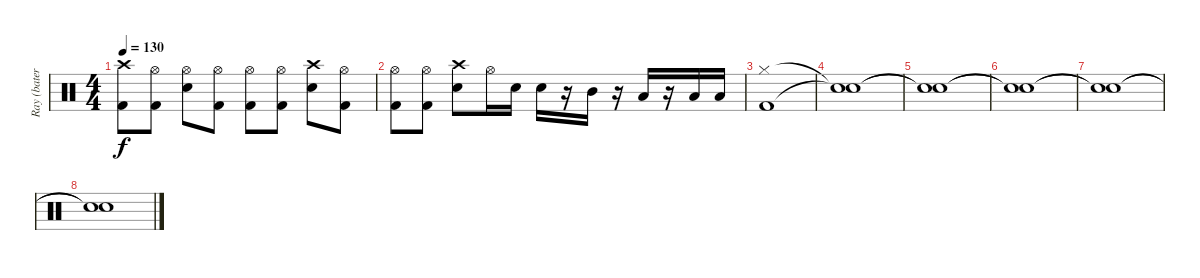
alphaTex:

\track ("Ray (batería)" "Ray (bater") {instrument percussion}
\staff {score}
\articulation defaults
\ts (4 4)
\tempo 130
\clef neutral
\ks c
("Crash high (hit)" "Kick (hit) 2").8{dy f} ("Hi-Hat (open)" "Kick (hit) 2").8 ("Hi-Hat (open)" "Snare (hit) 2").8 ("Hi-Hat (open)" "Kick (hit) 2").8 ("Hi-Hat (open)" "Kick (hit) 2").8 ("Hi-Hat (open)" "Kick (hit) 2").8 ("Crash high (hit)" "Snare (hit) 2").8 ("Hi-Hat (open)" "Kick (hit) 2").8 |
("Hi-Hat (open)" "Kick (hit) 2").8 ("Hi-Hat (open)" "Kick (hit) 2").8 ("Crash high (hit)" "Snare (hit) 2").8 "Hi-Hat (open)".16 "Snare (hit) 2".16 "Snare (hit) 2".16 r.16 "Mid Tom (hit)".16 r.16 "Low Tom (hit)".16 r.16 "Low Floor Tom (hit)".16 "Low Floor Tom (hit)".16 |
\section ("" "")
("Hi-Hat (closed)" "Kick (hit) 2").1 |
("Snare (hit)"{t} "Snare (hit)"{t}).1 |
("Snare (hit)"{t} "Snare (hit)"{t}).1 |
("Snare (hit)"{t} "Snare (hit)"{t}).1 |
("Snare (hit)"{t} "Snare (hit)"{t}).1 |
("Snare (hit)"{t} "Snare (hit)"{t}).1
